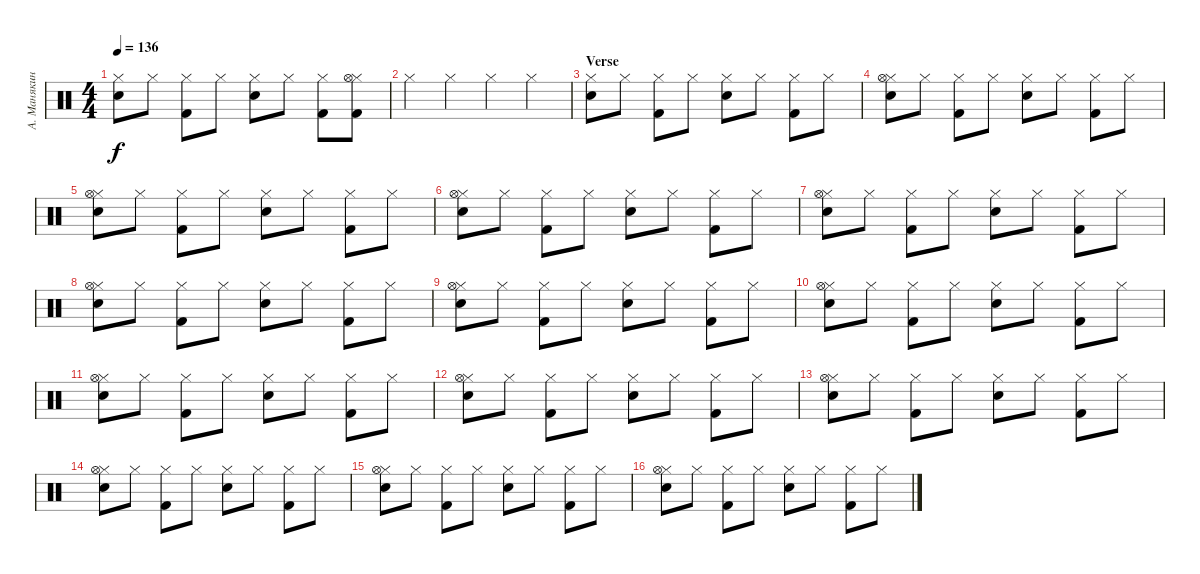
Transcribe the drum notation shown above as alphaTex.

\track ("А. Манякин" "А. Манякин") {instrument percussion}
\staff {score}
\articulation defaults
\ts (4 4)
\tempo 136
\clef neutral
\ks c
("Hi-Hat (closed)" "Snare (hit) 2").8{dy f} "Hi-Hat (closed)".8 ("Hi-Hat (closed)" "Kick (hit) 2").8 "Hi-Hat (closed)".8 ("Hi-Hat (closed)" "Snare (hit) 2").8 "Hi-Hat (closed)".8 ("Hi-Hat (closed)" "Kick (hit) 2").8 ("Hi-Hat (closed)" "Kick (hit) 2" "Hi-Hat (open)").8 |
"Hi-Hat (closed)".4 "Hi-Hat (closed)".4 "Hi-Hat (closed)".4 "Hi-Hat (closed)".4 |
\section ("" "Verse")
("Hi-Hat (closed)" "Snare (hit) 2").8 "Hi-Hat (closed)".8 ("Hi-Hat (closed)" "Kick (hit) 2").8 "Hi-Hat (closed)".8 ("Hi-Hat (closed)" "Snare (hit) 2").8 "Hi-Hat (closed)".8 ("Hi-Hat (closed)" "Kick (hit) 2").8 "Hi-Hat (closed)".8 |
("Hi-Hat (closed)" "Snare (hit) 2" "Hi-Hat (open)").8 "Hi-Hat (closed)".8 ("Hi-Hat (closed)" "Kick (hit) 2").8 "Hi-Hat (closed)".8 ("Hi-Hat (closed)" "Snare (hit) 2").8 "Hi-Hat (closed)".8 ("Hi-Hat (closed)" "Kick (hit) 2").8 "Hi-Hat (closed)".8 |
("Hi-Hat (closed)" "Snare (hit) 2" "Hi-Hat (open)").8 "Hi-Hat (closed)".8 ("Hi-Hat (closed)" "Kick (hit) 2").8 "Hi-Hat (closed)".8 ("Hi-Hat (closed)" "Snare (hit) 2").8 "Hi-Hat (closed)".8 ("Hi-Hat (closed)" "Kick (hit) 2").8 "Hi-Hat (closed)".8 |
("Hi-Hat (closed)" "Snare (hit) 2" "Hi-Hat (open)").8 "Hi-Hat (closed)".8 ("Hi-Hat (closed)" "Kick (hit) 2").8 "Hi-Hat (closed)".8 ("Hi-Hat (closed)" "Snare (hit) 2").8 "Hi-Hat (closed)".8 ("Hi-Hat (closed)" "Kick (hit) 2").8 "Hi-Hat (closed)".8 |
("Hi-Hat (closed)" "Snare (hit) 2" "Hi-Hat (open)").8 "Hi-Hat (closed)".8 ("Hi-Hat (closed)" "Kick (hit) 2").8 "Hi-Hat (closed)".8 ("Hi-Hat (closed)" "Snare (hit) 2").8 "Hi-Hat (closed)".8 ("Hi-Hat (closed)" "Kick (hit) 2").8 "Hi-Hat (closed)".8 |
("Hi-Hat (closed)" "Snare (hit) 2" "Hi-Hat (open)").8 "Hi-Hat (closed)".8 ("Hi-Hat (closed)" "Kick (hit) 2").8 "Hi-Hat (closed)".8 ("Hi-Hat (closed)" "Snare (hit) 2").8 "Hi-Hat (closed)".8 ("Hi-Hat (closed)" "Kick (hit) 2").8 "Hi-Hat (closed)".8 |
("Hi-Hat (closed)" "Snare (hit) 2" "Hi-Hat (open)").8 "Hi-Hat (closed)".8 ("Hi-Hat (closed)" "Kick (hit) 2").8 "Hi-Hat (closed)".8 ("Hi-Hat (closed)" "Snare (hit) 2").8 "Hi-Hat (closed)".8 ("Hi-Hat (closed)" "Kick (hit) 2").8 "Hi-Hat (closed)".8 |
("Hi-Hat (closed)" "Snare (hit) 2" "Hi-Hat (open)").8 "Hi-Hat (closed)".8 ("Hi-Hat (closed)" "Kick (hit) 2").8 "Hi-Hat (closed)".8 ("Hi-Hat (closed)" "Snare (hit) 2").8 "Hi-Hat (closed)".8 ("Hi-Hat (closed)" "Kick (hit) 2").8 "Hi-Hat (closed)".8 |
("Hi-Hat (closed)" "Snare (hit) 2" "Hi-Hat (open)").8 "Hi-Hat (closed)".8 ("Hi-Hat (closed)" "Kick (hit) 2").8 "Hi-Hat (closed)".8 ("Hi-Hat (closed)" "Snare (hit) 2").8 "Hi-Hat (closed)".8 ("Hi-Hat (closed)" "Kick (hit) 2").8 "Hi-Hat (closed)".8 |
("Hi-Hat (closed)" "Snare (hit) 2" "Hi-Hat (open)").8 "Hi-Hat (closed)".8 ("Hi-Hat (closed)" "Kick (hit) 2").8 "Hi-Hat (closed)".8 ("Hi-Hat (closed)" "Snare (hit) 2").8 "Hi-Hat (closed)".8 ("Hi-Hat (closed)" "Kick (hit) 2").8 "Hi-Hat (closed)".8 |
("Hi-Hat (closed)" "Snare (hit) 2" "Hi-Hat (open)").8 "Hi-Hat (closed)".8 ("Hi-Hat (closed)" "Kick (hit) 2").8 "Hi-Hat (closed)".8 ("Hi-Hat (closed)" "Snare (hit) 2").8 "Hi-Hat (closed)".8 ("Hi-Hat (closed)" "Kick (hit) 2").8 "Hi-Hat (closed)".8 |
("Hi-Hat (closed)" "Snare (hit) 2" "Hi-Hat (open)").8 "Hi-Hat (closed)".8 ("Hi-Hat (closed)" "Kick (hit) 2").8 "Hi-Hat (closed)".8 ("Hi-Hat (closed)" "Snare (hit) 2").8 "Hi-Hat (closed)".8 ("Hi-Hat (closed)" "Kick (hit) 2").8 "Hi-Hat (closed)".8 |
("Hi-Hat (closed)" "Snare (hit) 2" "Hi-Hat (open)").8 "Hi-Hat (closed)".8 ("Hi-Hat (closed)" "Kick (hit) 2").8 "Hi-Hat (closed)".8 ("Hi-Hat (closed)" "Snare (hit) 2").8 "Hi-Hat (closed)".8 ("Hi-Hat (closed)" "Kick (hit) 2").8 "Hi-Hat (closed)".8 |
("Hi-Hat (closed)" "Snare (hit) 2" "Hi-Hat (open)").8 "Hi-Hat (closed)".8 ("Hi-Hat (closed)" "Kick (hit) 2").8 "Hi-Hat (closed)".8 ("Hi-Hat (closed)" "Snare (hit) 2").8 "Hi-Hat (closed)".8 ("Hi-Hat (closed)" "Kick (hit) 2").8 "Hi-Hat (closed)".8
